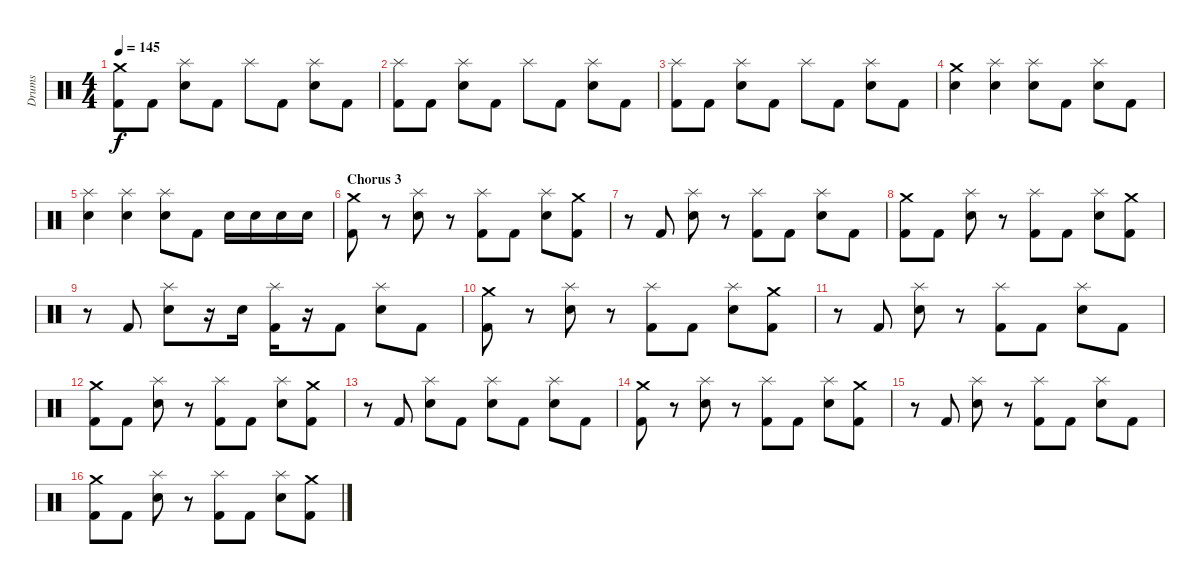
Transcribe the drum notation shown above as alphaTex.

\track ("Drums" "Drums") {instrument percussion}
\staff {score}
\articulation defaults
\ts (4 4)
\tempo 145
\clef neutral
\ks c
("Crash medium (hit)" "Kick (hit) 2").8{dy f} "Kick (hit) 2".8 ("Snare (hit) 2" "Splash (hit)").8 "Kick (hit) 2".8 "Splash (hit)".8 "Kick (hit) 2".8 ("Splash (hit)" "Snare (hit) 2").8 "Kick (hit) 2".8 |
("Splash (hit)" "Kick (hit) 2").8 "Kick (hit) 2".8 ("Snare (hit) 2" "Splash (hit)").8 "Kick (hit) 2".8 "Splash (hit)".8 "Kick (hit) 2".8 ("Splash (hit)" "Snare (hit) 2").8 "Kick (hit) 2".8 |
("Splash (hit)" "Kick (hit) 2").8 "Kick (hit) 2".8 ("Snare (hit) 2" "Splash (hit)").8 "Kick (hit) 2".8 "Splash (hit)".8 "Kick (hit) 2".8 ("Splash (hit)" "Snare (hit) 2").8 "Kick (hit) 2".8 |
("Crash medium (hit)" "Snare (hit) 2").4 ("Splash (hit)" "Snare (hit) 2").4 ("Splash (hit)" "Snare (hit) 2").8 "Kick (hit) 2".8 ("Splash (hit)" "Snare (hit) 2").8 "Kick (hit) 2".8 |
("Splash (hit)" "Snare (hit) 2").4 ("Splash (hit)" "Snare (hit) 2").4 ("Splash (hit)" "Snare (hit) 2").8 "Kick (hit) 2".8 "Snare (hit) 2".16 "Snare (hit) 2".16 "Snare (hit) 2".16 "Snare (hit) 2".16 |
\section ("" "Chorus 3")
("Crash medium (hit)" "Kick (hit) 2").8 r.8 ("Splash (hit)" "Snare (hit) 2").8 r.8 ("Splash (hit)" "Kick (hit) 2").8 "Kick (hit) 2".8 ("Splash (hit)" "Snare (hit) 2").8 ("Kick (hit) 2" "Crash medium (hit)").8 |
r.8 "Kick (hit) 2".8 ("Splash (hit)" "Snare (hit) 2").8 r.8 ("Splash (hit)" "Kick (hit) 2").8 "Kick (hit) 2".8 ("Splash (hit)" "Snare (hit) 2").8 "Kick (hit) 2".8 |
("Crash medium (hit)" "Kick (hit) 2").8 "Kick (hit) 2".8 ("Snare (hit) 2" "Splash (hit)").8 r.8 ("Splash (hit)" "Kick (hit) 2").8 "Kick (hit) 2".8 ("Splash (hit)" "Snare (hit) 2").8 ("Kick (hit) 2" "Crash medium (hit)").8 |
r.8 "Kick (hit) 2".8 ("Splash (hit)" "Snare (hit) 2").8 r.16 "Snare (hit) 2".16 ("Splash (hit)" "Kick (hit) 2").16 r.16 "Kick (hit) 2".8 ("Splash (hit)" "Snare (hit) 2").8 "Kick (hit) 2".8 |
("Crash medium (hit)" "Kick (hit) 2").8 r.8 ("Splash (hit)" "Snare (hit) 2").8 r.8 ("Splash (hit)" "Kick (hit) 2").8 "Kick (hit) 2".8 ("Splash (hit)" "Snare (hit) 2").8 ("Kick (hit) 2" "Crash medium (hit)").8 |
r.8 "Kick (hit) 2".8 ("Splash (hit)" "Snare (hit) 2").8 r.8 ("Splash (hit)" "Kick (hit) 2").8 "Kick (hit) 2".8 ("Splash (hit)" "Snare (hit) 2").8 "Kick (hit) 2".8 |
("Crash medium (hit)" "Kick (hit) 2").8 "Kick (hit) 2".8 ("Snare (hit) 2" "Splash (hit)").8 r.8 ("Splash (hit)" "Kick (hit) 2").8 "Kick (hit) 2".8 ("Splash (hit)" "Snare (hit) 2").8 ("Kick (hit) 2" "Crash medium (hit)").8 |
r.8 "Kick (hit) 2".8 ("Snare (hit) 2" "Splash (hit)").8 "Kick (hit) 2".8 ("Splash (hit)" "Snare (hit) 2").8 "Kick (hit) 2".8 ("Splash (hit)" "Snare (hit) 2").8 "Kick (hit) 2".8 |
("Crash medium (hit)" "Kick (hit) 2").8 r.8 ("Splash (hit)" "Snare (hit) 2").8 r.8 ("Splash (hit)" "Kick (hit) 2").8 "Kick (hit) 2".8 ("Splash (hit)" "Snare (hit) 2").8 ("Kick (hit) 2" "Crash medium (hit)").8 |
r.8 "Kick (hit) 2".8 ("Splash (hit)" "Snare (hit) 2").8 r.8 ("Splash (hit)" "Kick (hit) 2").8 "Kick (hit) 2".8 ("Splash (hit)" "Snare (hit) 2").8 "Kick (hit) 2".8 |
("Crash medium (hit)" "Kick (hit) 2").8 "Kick (hit) 2".8 ("Snare (hit) 2" "Splash (hit)").8 r.8 ("Splash (hit)" "Kick (hit) 2").8 "Kick (hit) 2".8 ("Splash (hit)" "Snare (hit) 2").8 ("Kick (hit) 2" "Crash medium (hit)").8
